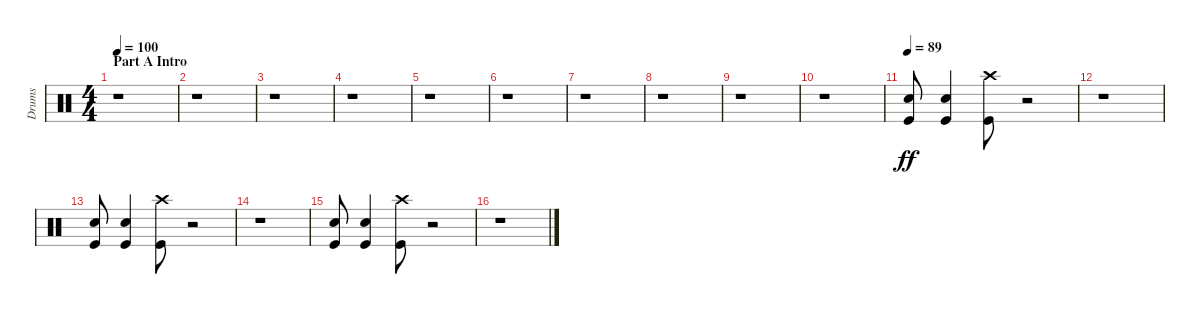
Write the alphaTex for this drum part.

\track ("Drums" "Drums") {instrument percussion}
\staff {score}
\articulation defaults
\ts (4 4)
\section ("" "Part A Intro")
\tempo 100
\tempo 84
\tempo 100
\clef neutral
\ks c
r.1{dy ff} |
r.1 |
r.1 |
r.1 |
r.1 |
r.1 |
r.1 |
r.1 |
r.1 |
r.1 |
\tempo 89
("Electric Snare (hit)" "Kick (hit)").8 ("Electric Snare (hit)" "Kick (hit)").4 ("Crash high (hit)" "Kick (hit)").8 r.2 |
r.1 |
("Electric Snare (hit)" "Kick (hit)").8 ("Electric Snare (hit)" "Kick (hit)").4 ("Crash high (hit)" "Kick (hit)").8 r.2 |
r.1 |
("Electric Snare (hit)" "Kick (hit)").8 ("Electric Snare (hit)" "Kick (hit)").4 ("Crash high (hit)" "Kick (hit)").8 r.2 |
r.1
